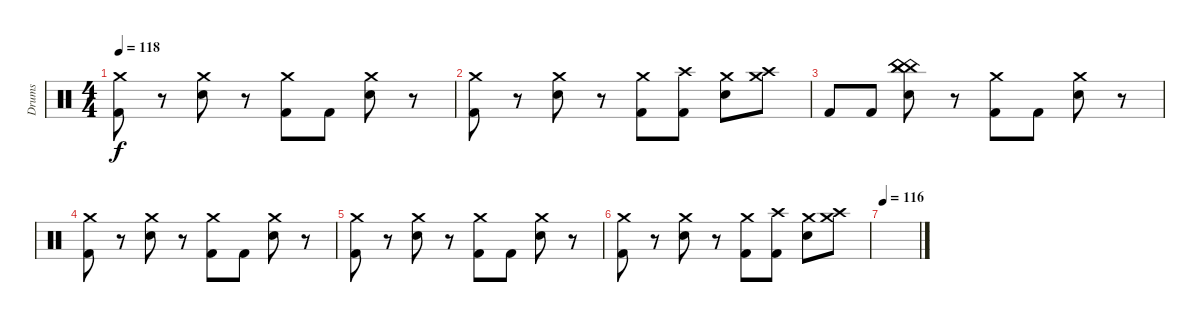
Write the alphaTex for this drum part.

\track ("Drums" "Drums") {instrument percussion}
\staff {score}
\articulation defaults
\ts (4 4)
\tempo 118
\clef neutral
\ks c
("Crash medium (hit)" "Kick (hit) 2").8{dy f} r.8 ("Crash medium (hit)" "Electric Snare (hit)").8 r.8 ("Crash medium (hit)" "Kick (hit) 2").8 "Kick (hit) 2".8 ("Crash medium (hit)" "Electric Snare (hit)").8 r.8 |
("Crash medium (hit)" "Kick (hit) 2").8 r.8 ("Crash medium (hit)" "Electric Snare (hit)").8 r.8 ("Crash medium (hit)" "Kick (hit) 2").8 ("Crash high (hit)" "Kick (hit) 2").8 ("Crash medium (hit)" "Electric Snare (hit)").8 ("Crash medium (hit)" "Crash high (hit)").8 |
"Kick (hit) 2".8 "Kick (hit) 2".8 ("China (hit)" "China (hit)" "China (hit)" "Electric Snare (hit)").8 r.8 ("Crash medium (hit)" "Kick (hit) 2").8 "Kick (hit) 2".8 ("Crash medium (hit)" "Electric Snare (hit)").8 r.8 |
("Crash medium (hit)" "Kick (hit) 2").8 r.8 ("Crash medium (hit)" "Electric Snare (hit)").8 r.8 ("Crash medium (hit)" "Kick (hit) 2").8 "Kick (hit) 2".8 ("Crash medium (hit)" "Electric Snare (hit)").8 r.8 |
("Crash medium (hit)" "Kick (hit) 2").8 r.8 ("Crash medium (hit)" "Electric Snare (hit)").8 r.8 ("Crash medium (hit)" "Kick (hit) 2").8 "Kick (hit) 2".8 ("Crash medium (hit)" "Electric Snare (hit)").8 r.8 |
("Crash medium (hit)" "Kick (hit) 2").8 r.8 ("Crash medium (hit)" "Electric Snare (hit)").8 r.8 ("Crash medium (hit)" "Kick (hit) 2").8 ("Crash high (hit)" "Kick (hit) 2").8 ("Crash medium (hit)" "Electric Snare (hit)").8 ("Crash medium (hit)" "Crash high (hit)").8 |
\tempo 116
